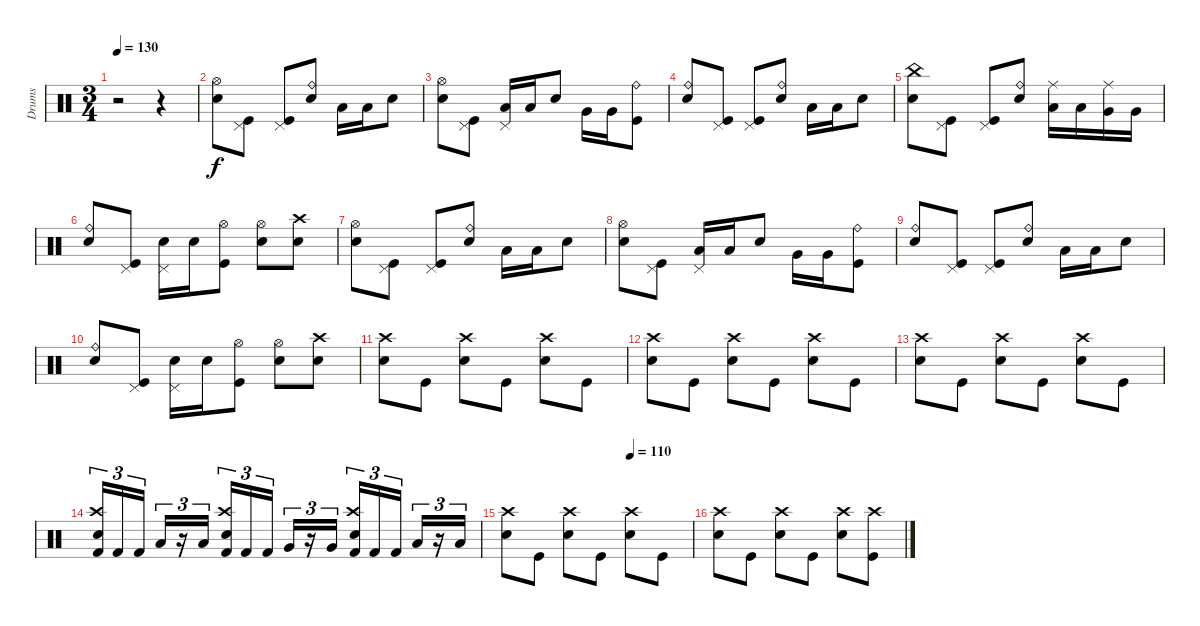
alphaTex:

\track ("Drums" "Drums") {instrument percussion}
\staff {score}
\articulation defaults
\ts (3 4)
\tempo 130
\clef neutral
\ks c
r.2{dy f} r.4 |
("Hi-Hat (open)" "Snare (hit) 2").8 ("Pedal Hi-Hat (hit)" "Kick (hit)").8 ("Pedal Hi-Hat (hit)" "Kick (hit)").8 ("Ride (bell)" "Snare (hit) 2").8 "Low Tom (hit)".16 "Low Tom (hit)".16 "Snare (hit) 2".8 |
("Hi-Hat (open)" "Snare (hit) 2").8 ("Pedal Hi-Hat (hit)" "Kick (hit)").8 ("Pedal Hi-Hat (hit)" "Low Tom (hit)").16 "Low Tom (hit)".16 "Snare (hit) 2".8 "Very Low Tom (hit)".16 "Very Low Tom (hit)".16 ("Ride (bell)" "Kick (hit)").8 |
("Ride (bell)" "Snare (hit) 2").8 ("Pedal Hi-Hat (hit)" "Kick (hit)").8 ("Pedal Hi-Hat (hit)" "Kick (hit)").8 ("Ride (bell)" "Snare (hit) 2").8 "Low Tom (hit)".16 "Low Tom (hit)".16 "Snare (hit) 2".8 |
("China (hit)" "Snare (hit) 2").8 ("Pedal Hi-Hat (hit)" "Kick (hit)").8 ("Pedal Hi-Hat (hit)" "Kick (hit)").8 ("Ride (bell)" "Snare (hit) 2").8 ("Ride (middle)" "Low Tom (hit)").16 "Low Tom (hit)".16 ("Ride (middle)" "Very Low Tom (hit)").16 "Very Low Tom (hit)".16 |
("Ride (bell)" "Snare (hit) 2").8 ("Pedal Hi-Hat (hit)" "Kick (hit)").8 ("Pedal Hi-Hat (hit)" "Snare (hit) 2").16 "Snare (hit) 2".16 ("Hi-Hat (open)" "Kick (hit)").8 ("Hi-Hat (open)" "Snare (hit) 2").8 ("Crash high (hit)" "Snare (hit) 2").8 |
("Hi-Hat (open)" "Snare (hit) 2").8 ("Pedal Hi-Hat (hit)" "Kick (hit)").8 ("Pedal Hi-Hat (hit)" "Kick (hit)").8 ("Ride (bell)" "Snare (hit) 2").8 "Low Tom (hit)".16 "Low Tom (hit)".16 "Snare (hit) 2".8 |
("Hi-Hat (open)" "Snare (hit) 2").8 ("Pedal Hi-Hat (hit)" "Kick (hit)").8 ("Pedal Hi-Hat (hit)" "Low Tom (hit)").16 "Low Tom (hit)".16 "Snare (hit) 2".8 "Very Low Tom (hit)".16 "Very Low Tom (hit)".16 ("Ride (bell)" "Kick (hit)").8 |
("Ride (bell)" "Snare (hit) 2").8 ("Pedal Hi-Hat (hit)" "Kick (hit)").8 ("Pedal Hi-Hat (hit)" "Kick (hit)").8 ("Ride (bell)" "Snare (hit) 2").8 "Low Tom (hit)".16 "Low Tom (hit)".16 "Snare (hit) 2".8 |
("Ride (bell)" "Snare (hit) 2").8 ("Pedal Hi-Hat (hit)" "Kick (hit)").8 ("Pedal Hi-Hat (hit)" "Snare (hit) 2").16 "Snare (hit) 2".16 ("Hi-Hat (open)" "Kick (hit)").8 ("Hi-Hat (open)" "Snare (hit) 2").8 ("Crash high (hit)" "Snare (hit) 2").8 |
("Crash high (hit)" "Snare (hit) 2").8 "Kick (hit)".8 ("Crash high (hit)" "Snare (hit) 2").8 "Kick (hit)".8 ("Crash high (hit)" "Snare (hit) 2").8 "Kick (hit)".8 |
("Crash high (hit)" "Snare (hit) 2").8 "Kick (hit)".8 ("Crash high (hit)" "Snare (hit) 2").8 "Kick (hit)".8 ("Crash high (hit)" "Snare (hit) 2").8 "Kick (hit)".8 |
("Crash high (hit)" "Snare (hit) 2").8 "Kick (hit)".8 ("Crash high (hit)" "Snare (hit) 2").8 "Kick (hit)".8 ("Crash high (hit)" "Snare (hit) 2").8 "Kick (hit)".8 |
("Crash high (hit)" "Snare (hit) 2" "Kick (hit) 2").16{tu (3 2)} "Kick (hit) 2".16{tu (3 2)} "Kick (hit) 2".16{tu (3 2)} "Low Tom (hit)".16{tu (3 2)} r.16{tu (3 2)} "Low Tom (hit)".16{tu (3 2)} ("Crash high (hit)" "Snare (hit) 2" "Kick (hit) 2").16{tu (3 2)} "Kick (hit) 2".16{tu (3 2)} "Kick (hit) 2".16{tu (3 2)} "Very Low Tom (hit)".16{tu (3 2)} r.16{tu (3 2)} "Very Low Tom (hit)".16{tu (3 2)} ("Crash high (hit)" "Snare (hit) 2" "Kick (hit) 2").16{tu (3 2)} "Kick (hit) 2".16{tu (3 2)} "Kick (hit) 2".16{tu (3 2)} "Low Floor Tom (hit)".16{tu (3 2)} r.16{tu (3 2)} "Low Floor Tom (hit)".16{tu (3 2)} |
\tempo (110 0.6666666666666666)
("Crash high (hit)" "Snare (hit) 2").8 "Kick (hit)".8 ("Crash high (hit)" "Snare (hit) 2").8 "Kick (hit)".8 ("Crash high (hit)" "Snare (hit) 2").8 "Kick (hit)".8 |
("Crash high (hit)" "Snare (hit) 2").8 "Kick (hit)".8 ("Crash high (hit)" "Snare (hit) 2").8 "Kick (hit)".8 ("Crash high (hit)" "Snare (hit) 2").8 ("Crash high (hit)" "Kick (hit)").8
